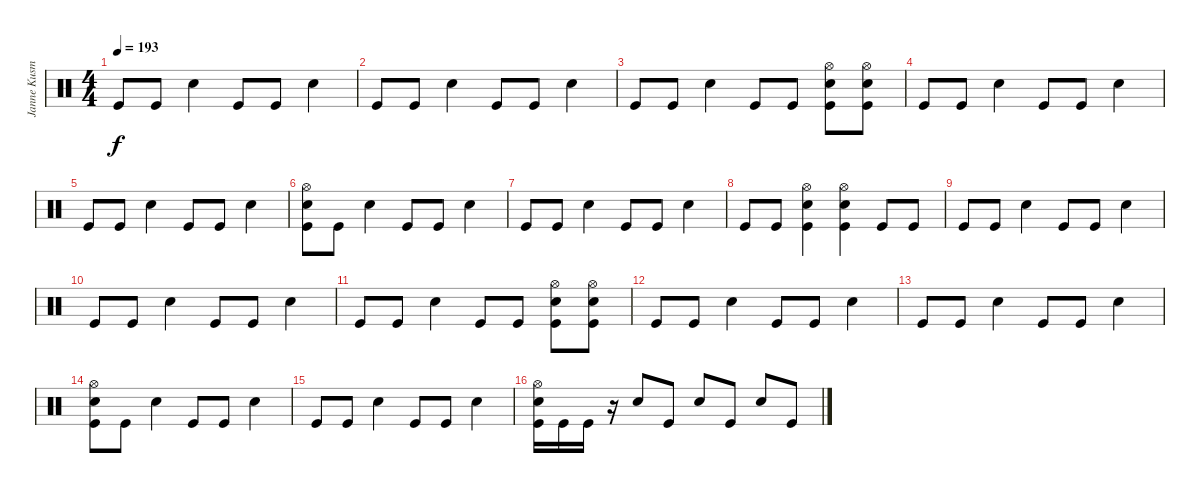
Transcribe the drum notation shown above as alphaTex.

\track ("Janne Kusmin " "Janne Kusm") {instrument percussion}
\staff {score}
\articulation defaults
\ts (4 4)
\tempo 193
\clef neutral
\ks c "Kick (hit)".8{dy f} "Kick (hit)".8 "Snare (hit) 2".4 "Kick (hit)".8 "Kick (hit)".8 "Snare (hit) 2".4
|
"Kick (hit)".8 "Kick (hit)".8 "Snare (hit) 2".4 "Kick (hit)".8 "Kick (hit)".8 "Snare (hit) 2".4 |
"Kick (hit)".8 "Kick (hit)".8 "Snare (hit) 2".4 "Kick (hit)".8 "Kick (hit)".8 ("Hi-Hat (open)" "Snare (hit) 2" "Kick (hit)").8 ("Hi-Hat (open)" "Snare (hit) 2" "Kick (hit)").8 |
"Kick (hit)".8 "Kick (hit)".8 "Snare (hit) 2".4 "Kick (hit)".8 "Kick (hit)".8 "Snare (hit) 2".4 |
"Kick (hit)".8 "Kick (hit)".8 "Snare (hit) 2".4 "Kick (hit)".8 "Kick (hit)".8 "Snare (hit) 2".4 |
("Hi-Hat (open)" "Snare (hit) 2" "Kick (hit)").8 "Kick (hit)".8 "Snare (hit) 2".4 "Kick (hit)".8 "Kick (hit)".8 "Snare (hit) 2".4 |
"Kick (hit)".8 "Kick (hit)".8 "Snare (hit) 2".4 "Kick (hit)".8 "Kick (hit)".8 "Snare (hit) 2".4 |
"Kick (hit)".8 "Kick (hit)".8 ("Hi-Hat (open)" "Snare (hit) 2" "Kick (hit)").4 ("Hi-Hat (open)" "Snare (hit) 2" "Kick (hit)").4 "Kick (hit)".8 "Kick (hit)".8 |
"Kick (hit)".8 "Kick (hit)".8 "Snare (hit) 2".4 "Kick (hit)".8 "Kick (hit)".8 "Snare (hit) 2".4 |
"Kick (hit)".8 "Kick (hit)".8 "Snare (hit) 2".4 "Kick (hit)".8 "Kick (hit)".8 "Snare (hit) 2".4 |
"Kick (hit)".8 "Kick (hit)".8 "Snare (hit) 2".4 "Kick (hit)".8 "Kick (hit)".8 ("Hi-Hat (open)" "Snare (hit) 2" "Kick (hit)").8 ("Hi-Hat (open)" "Snare (hit) 2" "Kick (hit)").8 |
"Kick (hit)".8 "Kick (hit)".8 "Snare (hit) 2".4 "Kick (hit)".8 "Kick (hit)".8 "Snare (hit) 2".4 |
"Kick (hit)".8 "Kick (hit)".8 "Snare (hit) 2".4 "Kick (hit)".8 "Kick (hit)".8 "Snare (hit) 2".4 |
("Hi-Hat (open)" "Snare (hit) 2" "Kick (hit)").8 "Kick (hit)".8 "Snare (hit) 2".4 "Kick (hit)".8 "Kick (hit)".8 "Snare (hit) 2".4 |
"Kick (hit)".8 "Kick (hit)".8 "Snare (hit) 2".4 "Kick (hit)".8 "Kick (hit)".8 "Snare (hit) 2".4 |
("Hi-Hat (open)" "Snare (hit) 2" "Kick (hit)").16 "Kick (hit)".16 "Kick (hit)".16 r.16 "Snare (hit) 2".8 "Kick (hit)".8 "Snare (hit) 2".8 "Kick (hit)".8 "Snare (hit) 2".8 "Kick (hit)".8
